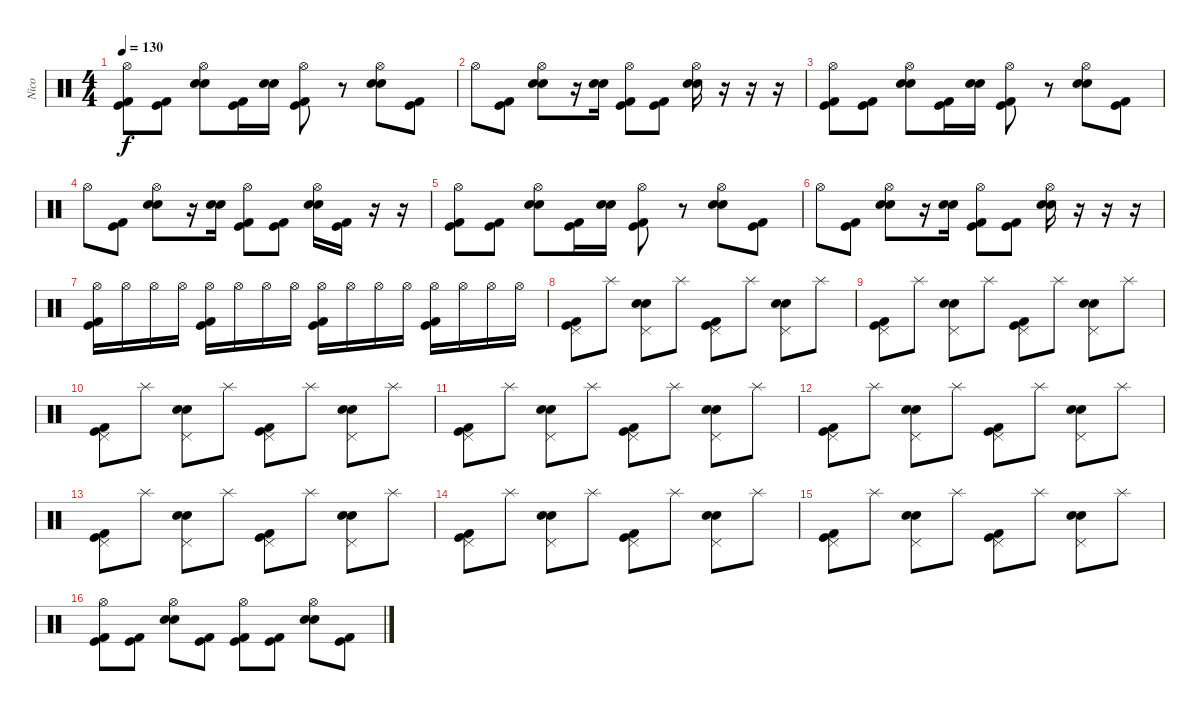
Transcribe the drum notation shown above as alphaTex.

\track ("Nico" "Nico") {instrument percussion}
\staff {score}
\articulation defaults
\ts (4 4)
\tempo 130
\clef neutral
\ks c
("Hi-Hat (open)" "Kick (hit) 2" "Kick (hit)").8{dy f} ("Kick (hit) 2" "Kick (hit)").8 ("Hi-Hat (open)" "Electric Snare (hit)" "Electric Snare (hit)").8 ("Kick (hit) 2" "Kick (hit)").16 ("Electric Snare (hit)" "Electric Snare (hit)").16 ("Hi-Hat (open)" "Kick (hit) 2" "Kick (hit)").8 r.8 ("Hi-Hat (open)" "Electric Snare (hit)" "Electric Snare (hit)").8 ("Kick (hit)" "Kick (hit) 2").8 |
"Hi-Hat (open)".8 ("Kick (hit) 2" "Kick (hit)").8 ("Hi-Hat (open)" "Electric Snare (hit)" "Electric Snare (hit)").8 r.16 ("Electric Snare (hit)" "Electric Snare (hit)").16 ("Hi-Hat (open)" "Kick (hit) 2" "Kick (hit)").8 ("Kick (hit) 2" "Kick (hit)").8 ("Hi-Hat (open)" "Electric Snare (hit)" "Electric Snare (hit)").16 r.16 r.16 r.16 |
("Hi-Hat (open)" "Kick (hit) 2" "Kick (hit)").8 ("Kick (hit) 2" "Kick (hit)").8 ("Hi-Hat (open)" "Electric Snare (hit)" "Electric Snare (hit)").8 ("Kick (hit) 2" "Kick (hit)").16 ("Electric Snare (hit)" "Electric Snare (hit)").16 ("Hi-Hat (open)" "Kick (hit) 2" "Kick (hit)").8 r.8 ("Hi-Hat (open)" "Electric Snare (hit)" "Electric Snare (hit)").8 ("Kick (hit)" "Kick (hit) 2").8 |
"Hi-Hat (open)".8 ("Kick (hit) 2" "Kick (hit)").8 ("Hi-Hat (open)" "Electric Snare (hit)" "Electric Snare (hit)").8 r.16 ("Electric Snare (hit)" "Electric Snare (hit)").16 ("Hi-Hat (open)" "Kick (hit) 2" "Kick (hit)").8 ("Kick (hit) 2" "Kick (hit)").8 ("Hi-Hat (open)" "Electric Snare (hit)" "Electric Snare (hit)").16 ("Kick (hit) 2" "Kick (hit)").16 r.16 r.16 |
("Hi-Hat (open)" "Kick (hit) 2" "Kick (hit)").8 ("Kick (hit) 2" "Kick (hit)").8 ("Hi-Hat (open)" "Electric Snare (hit)" "Electric Snare (hit)").8 ("Kick (hit) 2" "Kick (hit)").16 ("Electric Snare (hit)" "Electric Snare (hit)").16 ("Hi-Hat (open)" "Kick (hit) 2" "Kick (hit)").8 r.8 ("Hi-Hat (open)" "Electric Snare (hit)" "Electric Snare (hit)").8 ("Kick (hit)" "Kick (hit) 2").8 |
"Hi-Hat (open)".8 ("Kick (hit) 2" "Kick (hit)").8 ("Hi-Hat (open)" "Electric Snare (hit)" "Electric Snare (hit)").8 r.16 ("Electric Snare (hit)" "Electric Snare (hit)").16 ("Hi-Hat (open)" "Kick (hit) 2" "Kick (hit)").8 ("Kick (hit) 2" "Kick (hit)").8 ("Hi-Hat (open)" "Electric Snare (hit)" "Electric Snare (hit)").16 r.16 r.16 r.16 |
("Hi-Hat (open)" "Kick (hit) 2" "Kick (hit)").16 "Hi-Hat (open)".16 "Hi-Hat (open)".16 "Hi-Hat (open)".16 ("Hi-Hat (open)" "Kick (hit) 2" "Kick (hit)").16 "Hi-Hat (open)".16 "Hi-Hat (open)".16 "Hi-Hat (open)".16 ("Hi-Hat (open)" "Kick (hit) 2" "Kick (hit)").16 "Hi-Hat (open)".16 "Hi-Hat (open)".16 "Hi-Hat (open)".16 ("Hi-Hat (open)" "Kick (hit) 2" "Kick (hit)").16 "Hi-Hat (open)".16 "Hi-Hat (open)".16 "Hi-Hat (open)".16 |
("Pedal Hi-Hat (hit)" "Kick (hit) 2" "Kick (hit)").8 "Splash (hit)".8 ("Pedal Hi-Hat (hit)" "Electric Snare (hit)" "Electric Snare (hit)").8 "Splash (hit)".8 ("Pedal Hi-Hat (hit)" "Kick (hit) 2" "Kick (hit)").8 "Splash (hit)".8 ("Pedal Hi-Hat (hit)" "Electric Snare (hit)" "Electric Snare (hit)").8 "Splash (hit)".8 |
("Pedal Hi-Hat (hit)" "Kick (hit) 2" "Kick (hit)").8 "Splash (hit)".8 ("Pedal Hi-Hat (hit)" "Electric Snare (hit)" "Electric Snare (hit)").8 "Splash (hit)".8 ("Pedal Hi-Hat (hit)" "Kick (hit) 2" "Kick (hit)").8 "Splash (hit)".8 ("Pedal Hi-Hat (hit)" "Electric Snare (hit)" "Electric Snare (hit)").8 "Splash (hit)".8 |
("Pedal Hi-Hat (hit)" "Kick (hit) 2" "Kick (hit)").8 "Splash (hit)".8 ("Pedal Hi-Hat (hit)" "Electric Snare (hit)" "Electric Snare (hit)").8 "Splash (hit)".8 ("Pedal Hi-Hat (hit)" "Kick (hit) 2" "Kick (hit)").8 "Splash (hit)".8 ("Pedal Hi-Hat (hit)" "Electric Snare (hit)" "Electric Snare (hit)").8 "Splash (hit)".8 |
("Pedal Hi-Hat (hit)" "Kick (hit) 2" "Kick (hit)").8 "Splash (hit)".8 ("Pedal Hi-Hat (hit)" "Electric Snare (hit)" "Electric Snare (hit)").8 "Splash (hit)".8 ("Pedal Hi-Hat (hit)" "Kick (hit) 2" "Kick (hit)").8 "Splash (hit)".8 ("Pedal Hi-Hat (hit)" "Electric Snare (hit)" "Electric Snare (hit)").8 "Splash (hit)".8 |
("Pedal Hi-Hat (hit)" "Kick (hit) 2" "Kick (hit)").8 "Splash (hit)".8 ("Pedal Hi-Hat (hit)" "Electric Snare (hit)" "Electric Snare (hit)").8 "Splash (hit)".8 ("Pedal Hi-Hat (hit)" "Kick (hit) 2" "Kick (hit)").8 "Splash (hit)".8 ("Pedal Hi-Hat (hit)" "Electric Snare (hit)" "Electric Snare (hit)").8 "Splash (hit)".8 |
("Pedal Hi-Hat (hit)" "Kick (hit) 2" "Kick (hit)").8 "Splash (hit)".8 ("Pedal Hi-Hat (hit)" "Electric Snare (hit)" "Electric Snare (hit)").8 "Splash (hit)".8 ("Pedal Hi-Hat (hit)" "Kick (hit) 2" "Kick (hit)").8 "Splash (hit)".8 ("Pedal Hi-Hat (hit)" "Electric Snare (hit)" "Electric Snare (hit)").8 "Splash (hit)".8 |
("Pedal Hi-Hat (hit)" "Kick (hit) 2" "Kick (hit)").8 "Splash (hit)".8 ("Pedal Hi-Hat (hit)" "Electric Snare (hit)" "Electric Snare (hit)").8 "Splash (hit)".8 ("Pedal Hi-Hat (hit)" "Kick (hit) 2" "Kick (hit)").8 "Splash (hit)".8 ("Pedal Hi-Hat (hit)" "Electric Snare (hit)" "Electric Snare (hit)").8 "Splash (hit)".8 |
("Pedal Hi-Hat (hit)" "Kick (hit) 2" "Kick (hit)").8 "Splash (hit)".8 ("Pedal Hi-Hat (hit)" "Electric Snare (hit)" "Electric Snare (hit)").8 "Splash (hit)".8 ("Pedal Hi-Hat (hit)" "Kick (hit) 2" "Kick (hit)").8 "Splash (hit)".8 ("Pedal Hi-Hat (hit)" "Electric Snare (hit)" "Electric Snare (hit)").8 "Splash (hit)".8 |
("Hi-Hat (open)" "Kick (hit) 2" "Kick (hit)").8 ("Kick (hit) 2" "Kick (hit)").8 ("Hi-Hat (open)" "Electric Snare (hit)" "Electric Snare (hit)").8 ("Kick (hit)" "Kick (hit) 2").8 ("Hi-Hat (open)" "Kick (hit) 2" "Kick (hit)").8 ("Kick (hit) 2" "Kick (hit)").8 ("Hi-Hat (open)" "Electric Snare (hit)" "Electric Snare (hit)").8 ("Kick (hit)" "Kick (hit) 2").8
